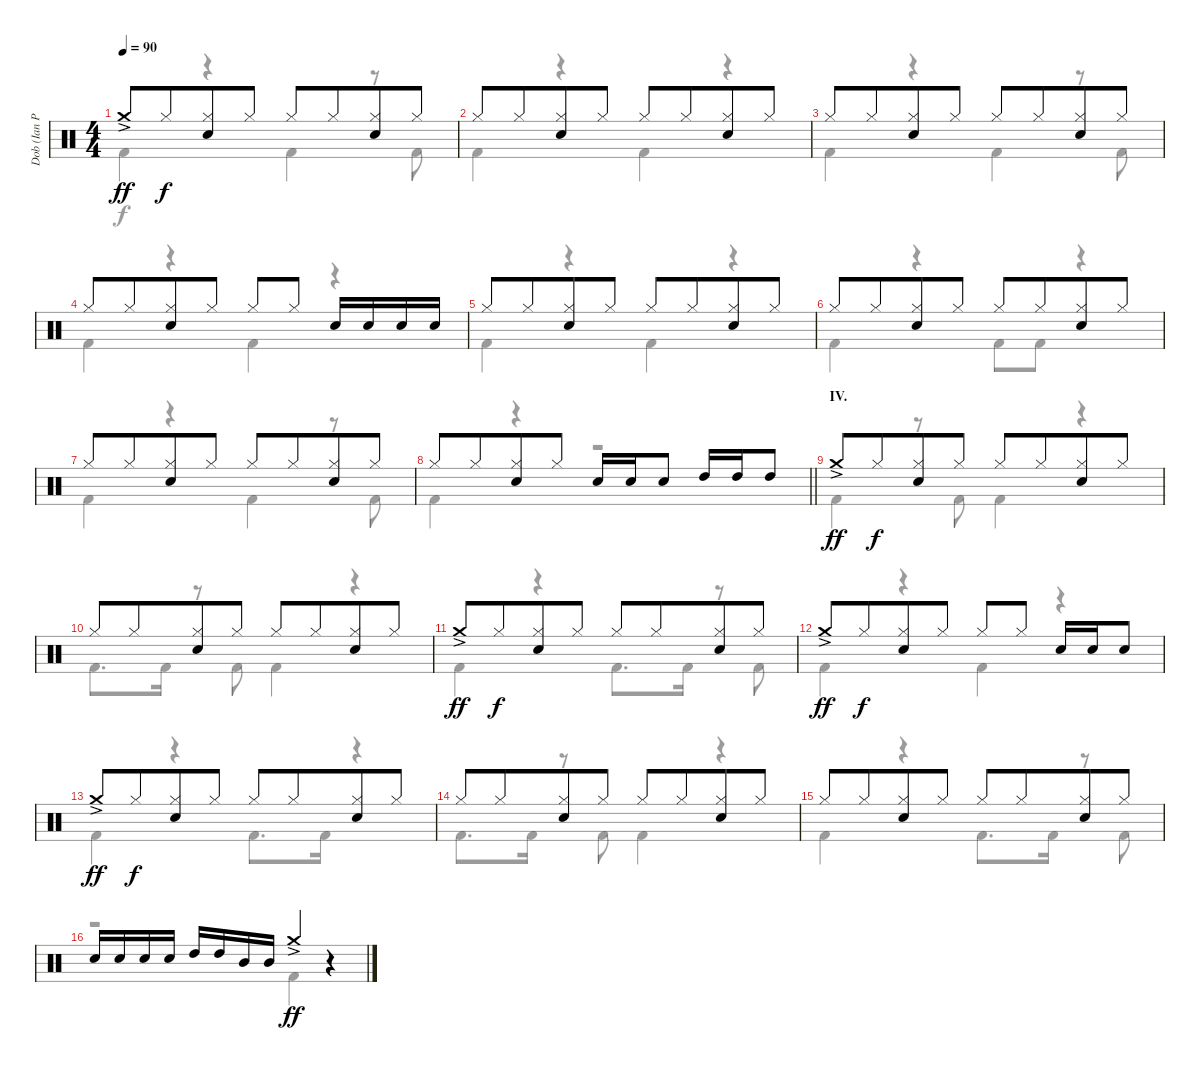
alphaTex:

\track ("Dob (Ian Paice)" "Dob (Ian P") {instrument percussion}
\staff {score}
\articulation defaults
\voice
\ts (4 4)
\tempo 90
\clef neutral
\ks c "Crash medium (hit)"{ac}.8{dy ff} "Hi-Hat (closed)".8{dy f beam merge}
("Hi-Hat (closed)" "Electric Snare (hit)").8 "Hi-Hat (closed)".8 "Hi-Hat (closed)".8 "Hi-Hat (closed)".8{beam merge} ("Hi-Hat (closed)" "Electric Snare (hit)").8 "Hi-Hat (closed)".8 |
"Hi-Hat (closed)".8 "Hi-Hat (closed)".8{beam merge} ("Hi-Hat (closed)" "Electric Snare (hit)").8 "Hi-Hat (closed)".8 "Hi-Hat (closed)".8 "Hi-Hat (closed)".8{beam merge} ("Hi-Hat (closed)" "Electric Snare (hit)").8 "Hi-Hat (closed)".8 |
"Hi-Hat (closed)".8 "Hi-Hat (closed)".8{beam merge} ("Hi-Hat (closed)" "Electric Snare (hit)").8 "Hi-Hat (closed)".8 "Hi-Hat (closed)".8 "Hi-Hat (closed)".8{beam merge} ("Hi-Hat (closed)" "Electric Snare (hit)").8 "Hi-Hat (closed)".8 |
"Hi-Hat (closed)".8 "Hi-Hat (closed)".8{beam merge} ("Hi-Hat (closed)" "Electric Snare (hit)").8 "Hi-Hat (closed)".8 "Hi-Hat (closed)".8 "Hi-Hat (closed)".8 "Electric Snare (hit)".16 "Electric Snare (hit)".16 "Electric Snare (hit)".16 "Electric Snare (hit)".16 |
"Hi-Hat (closed)".8 "Hi-Hat (closed)".8{beam merge} ("Hi-Hat (closed)" "Electric Snare (hit)").8 "Hi-Hat (closed)".8 "Hi-Hat (closed)".8 "Hi-Hat (closed)".8{beam merge} ("Hi-Hat (closed)" "Electric Snare (hit)").8 "Hi-Hat (closed)".8 |
"Hi-Hat (closed)".8 "Hi-Hat (closed)".8{beam merge} ("Hi-Hat (closed)" "Electric Snare (hit)").8 "Hi-Hat (closed)".8 "Hi-Hat (closed)".8 "Hi-Hat (closed)".8{beam merge} ("Hi-Hat (closed)" "Electric Snare (hit)").8 "Hi-Hat (closed)".8 |
"Hi-Hat (closed)".8 "Hi-Hat (closed)".8{beam merge} ("Hi-Hat (closed)" "Electric Snare (hit)").8 "Hi-Hat (closed)".8 "Hi-Hat (closed)".8 "Hi-Hat (closed)".8{beam merge} ("Hi-Hat (closed)" "Electric Snare (hit)").8 "Hi-Hat (closed)".8 |
\barLineRight lightlight "Hi-Hat (closed)".8 "Hi-Hat (closed)".8{beam merge}
("Hi-Hat (closed)" "Electric Snare (hit)").8 "Hi-Hat (closed)".8 "Electric Snare (hit)".16 "Electric Snare (hit)".16 "Electric Snare (hit)".8 "High Tom (hit)".16 "High Tom (hit)".16 "High Tom (hit)".8 |
\section ("" "IV.")
"Crash medium (hit)"{ac}.8{dy ff} "Hi-Hat (closed)".8{dy f beam merge} ("Hi-Hat (closed)" "Electric Snare (hit)").8 "Hi-Hat (closed)".8 "Hi-Hat (closed)".8 "Hi-Hat (closed)".8{beam merge} ("Hi-Hat (closed)" "Electric Snare (hit)").8 "Hi-Hat (closed)".8 |
"Hi-Hat (closed)".8 "Hi-Hat (closed)".8{beam merge} ("Hi-Hat (closed)" "Electric Snare (hit)").8 "Hi-Hat (closed)".8 "Hi-Hat (closed)".8 "Hi-Hat (closed)".8{beam merge} ("Hi-Hat (closed)" "Electric Snare (hit)").8 "Hi-Hat (closed)".8 |
"Crash medium (hit)"{ac}.8{dy ff} "Hi-Hat (closed)".8{dy f beam merge} ("Hi-Hat (closed)" "Electric Snare (hit)").8 "Hi-Hat (closed)".8 "Hi-Hat (closed)".8 "Hi-Hat (closed)".8{beam merge} ("Hi-Hat (closed)" "Electric Snare (hit)").8 "Hi-Hat (closed)".8 |
"Crash medium (hit)"{ac}.8{dy ff} "Hi-Hat (closed)".8{dy f beam merge} ("Hi-Hat (closed)" "Electric Snare (hit)").8 "Hi-Hat (closed)".8 "Hi-Hat (closed)".8 "Hi-Hat (closed)".8 "Electric Snare (hit)".16 "Electric Snare (hit)".16 "Electric Snare (hit)".8 |
"Crash medium (hit)"{ac}.8{dy ff} "Hi-Hat (closed)".8{dy f beam merge} ("Hi-Hat (closed)" "Electric Snare (hit)").8 "Hi-Hat (closed)".8 "Hi-Hat (closed)".8 "Hi-Hat (closed)".8{beam merge} ("Hi-Hat (closed)" "Electric Snare (hit)").8 "Hi-Hat (closed)".8 |
"Hi-Hat (closed)".8 "Hi-Hat (closed)".8{beam merge} ("Hi-Hat (closed)" "Electric Snare (hit)").8 "Hi-Hat (closed)".8 "Hi-Hat (closed)".8 "Hi-Hat (closed)".8{beam merge} ("Hi-Hat (closed)" "Electric Snare (hit)").8 "Hi-Hat (closed)".8 |
"Hi-Hat (closed)".8 "Hi-Hat (closed)".8{beam merge} ("Hi-Hat (closed)" "Electric Snare (hit)").8 "Hi-Hat (closed)".8 "Hi-Hat (closed)".8 "Hi-Hat (closed)".8{beam merge} ("Hi-Hat (closed)" "Electric Snare (hit)").8 "Hi-Hat (closed)".8 |
"Electric Snare (hit)".16 "Electric Snare (hit)".16 "Electric Snare (hit)".16 "Electric Snare (hit)".16 "High Tom (hit)".16 "High Tom (hit)".16 "Mid Tom (hit)".16 "Mid Tom (hit)".16 "Crash medium (hit)"{ac}.4{dy ff} r.4
\voice
\clef neutral
\ottava regular
\simile none
\ks c "Kick (hit) 2".4{dy f}
r.4 "Kick (hit) 2".4 r.8 "Kick (hit) 2".8 |
"Kick (hit) 2".4 r.4 "Kick (hit) 2".4 r.4 |
"Kick (hit) 2".4 r.4 "Kick (hit) 2".4 r.8 "Kick (hit) 2".8 |
"Kick (hit) 2".4 r.4 "Kick (hit) 2".4 r.4 |
"Kick (hit) 2".4 r.4 "Kick (hit) 2".4 r.4 |
"Kick (hit) 2".4 r.4 "Kick (hit) 2".8 "Kick (hit) 2".8 r.4 |
"Kick (hit) 2".4 r.4 "Kick (hit) 2".4 r.8 "Kick (hit) 2".8 |
\barLineRight lightlight "Kick (hit) 2".4
r.4 r.2 |
"Kick (hit) 2".4 r.8 "Kick (hit) 2".8 "Kick (hit) 2".4 r.4 |
"Kick (hit) 2".8{d} "Kick (hit) 2".16 r.8 "Kick (hit) 2".8 "Kick (hit) 2".4 r.4 |
"Kick (hit) 2".4 r.4 "Kick (hit) 2".8{d} "Kick (hit) 2".16 r.8 "Kick (hit) 2".8 |
"Kick (hit) 2".4 r.4 "Kick (hit) 2".4 r.4 |
"Kick (hit) 2".4 r.4 "Kick (hit) 2".8{d} "Kick (hit) 2".16 r.4 |
"Kick (hit) 2".8{d} "Kick (hit) 2".16 r.8 "Kick (hit) 2".8 "Kick (hit) 2".4 r.4 |
"Kick (hit) 2".4 r.4 "Kick (hit) 2".8{d} "Kick (hit) 2".16 r.8 "Kick (hit) 2".8 |
r.2 "Kick (hit) 2".4 r.4
